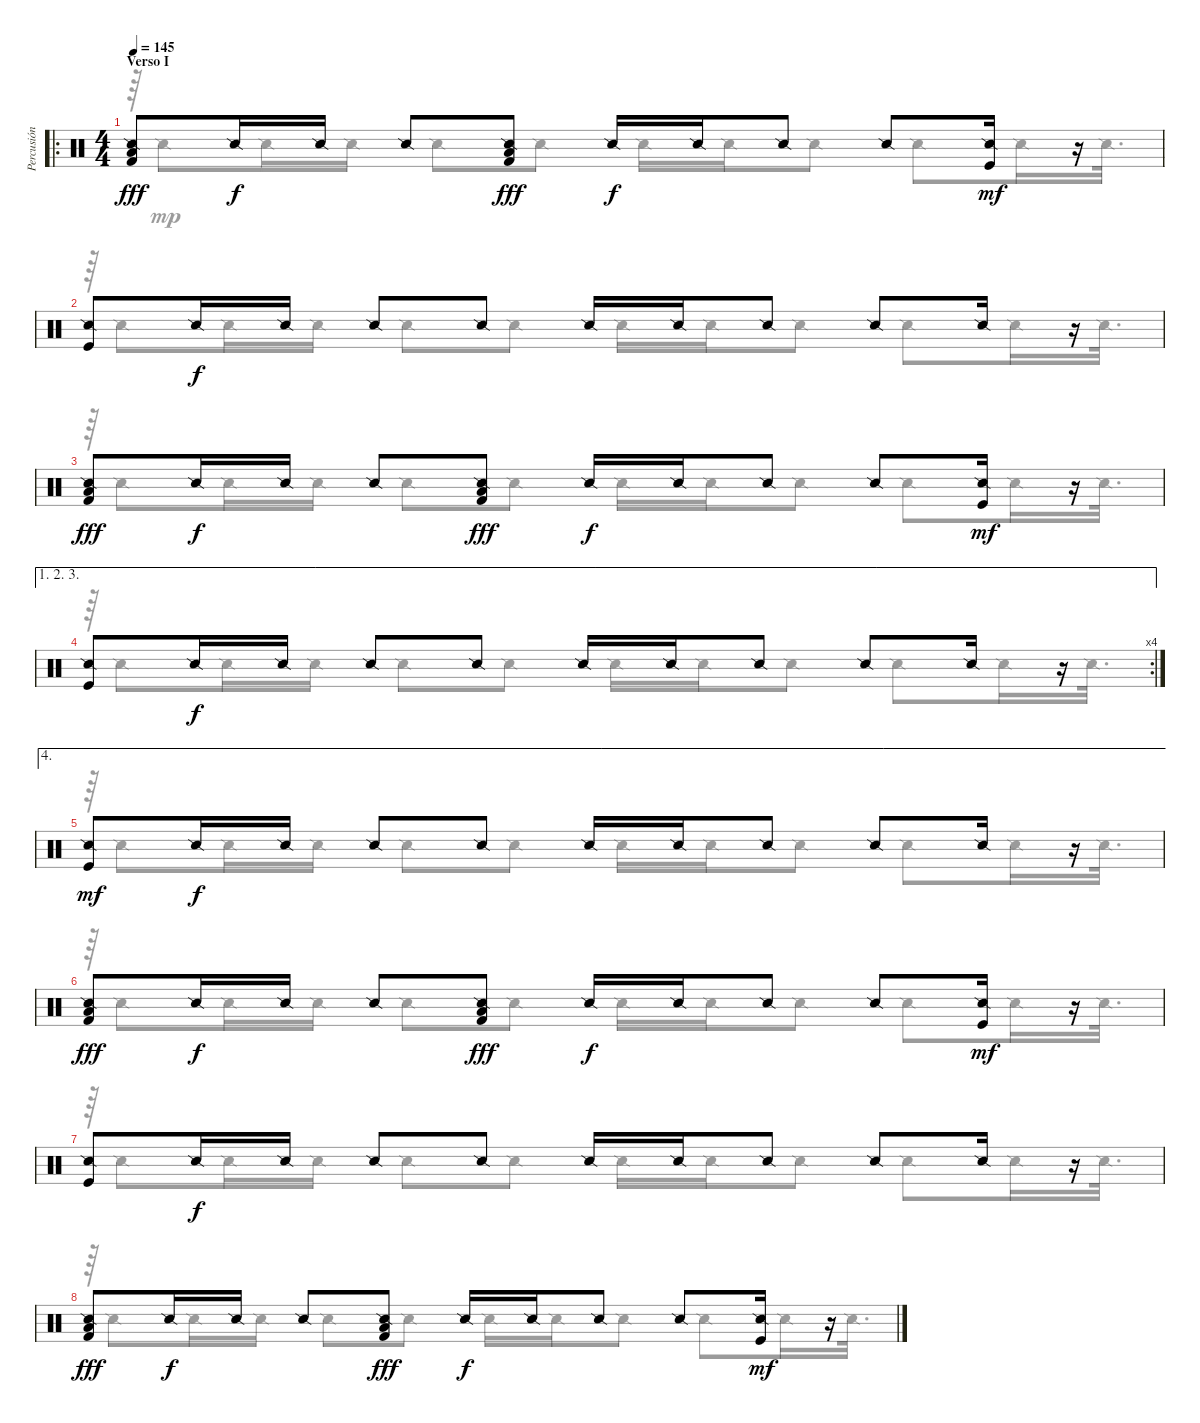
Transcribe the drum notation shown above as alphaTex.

\track ("Percusión" "Percusión") {instrument percussion}
\staff {score}
\articulation defaults
\voice
\ro
\ts (4 4)
\section ("" "Verso I")
\tempo 145
\clef neutral
\ks c
("Snare (side stick) 2" "Low Floor Tom (hit)" "Kick (hit) 2").8{dy fff} "Snare (side stick) 2".16{dy f} "Snare (side stick) 2".16 "Snare (side stick) 2".8 ("Snare (side stick) 2" "Low Floor Tom (hit)" "Kick (hit) 2").8{dy fff} "Snare (side stick) 2".16{dy f} "Snare (side stick) 2".16 "Snare (side stick) 2".8 "Snare (side stick) 2".8 ("Snare (side stick) 2" "Kick (hit)").16{dy mf} r.16 |
("Snare (side stick) 2" "Kick (hit)").8 "Snare (side stick) 2".16{dy f} "Snare (side stick) 2".16 "Snare (side stick) 2".8 "Snare (side stick) 2".8 "Snare (side stick) 2".16 "Snare (side stick) 2".16 "Snare (side stick) 2".8 "Snare (side stick) 2".8 "Snare (side stick) 2".16 r.16 |
("Snare (side stick) 2" "Low Floor Tom (hit)" "Kick (hit) 2").8{dy fff} "Snare (side stick) 2".16{dy f} "Snare (side stick) 2".16 "Snare (side stick) 2".8 ("Snare (side stick) 2" "Low Floor Tom (hit)" "Kick (hit) 2").8{dy fff} "Snare (side stick) 2".16{dy f} "Snare (side stick) 2".16 "Snare (side stick) 2".8 "Snare (side stick) 2".8 ("Snare (side stick) 2" "Kick (hit)").16{dy mf} r.16 |
\ae (1 2 3)
\rc 4
("Snare (side stick) 2" "Kick (hit)").8 "Snare (side stick) 2".16{dy f} "Snare (side stick) 2".16 "Snare (side stick) 2".8 "Snare (side stick) 2".8 "Snare (side stick) 2".16 "Snare (side stick) 2".16 "Snare (side stick) 2".8 "Snare (side stick) 2".8 "Snare (side stick) 2".16 r.16 |
\ae 4
("Snare (side stick) 2" "Kick (hit)").8{dy mf} "Snare (side stick) 2".16{dy f} "Snare (side stick) 2".16 "Snare (side stick) 2".8 "Snare (side stick) 2".8 "Snare (side stick) 2".16 "Snare (side stick) 2".16 "Snare (side stick) 2".8 "Snare (side stick) 2".8 "Snare (side stick) 2".16 r.16 |
("Snare (side stick) 2" "Low Floor Tom (hit)" "Kick (hit) 2").8{dy fff} "Snare (side stick) 2".16{dy f} "Snare (side stick) 2".16 "Snare (side stick) 2".8 ("Snare (side stick) 2" "Low Floor Tom (hit)" "Kick (hit) 2").8{dy fff} "Snare (side stick) 2".16{dy f} "Snare (side stick) 2".16 "Snare (side stick) 2".8 "Snare (side stick) 2".8 ("Snare (side stick) 2" "Kick (hit)").16{dy mf} r.16 |
("Snare (side stick) 2" "Kick (hit)").8 "Snare (side stick) 2".16{dy f} "Snare (side stick) 2".16 "Snare (side stick) 2".8 "Snare (side stick) 2".8 "Snare (side stick) 2".16 "Snare (side stick) 2".16 "Snare (side stick) 2".8 "Snare (side stick) 2".8 "Snare (side stick) 2".16 r.16 |
("Snare (side stick) 2" "Low Floor Tom (hit)" "Kick (hit) 2").8{dy fff} "Snare (side stick) 2".16{dy f} "Snare (side stick) 2".16 "Snare (side stick) 2".8 ("Snare (side stick) 2" "Low Floor Tom (hit)" "Kick (hit) 2").8{dy fff} "Snare (side stick) 2".16{dy f} "Snare (side stick) 2".16 "Snare (side stick) 2".8 "Snare (side stick) 2".8 ("Snare (side stick) 2" "Kick (hit)").16{dy mf} r.16
\voice
\clef neutral
\ottava regular
\simile none
\ks c
r.64{dy mp} "Snare (side stick) 2".8 "Snare (side stick) 2".16 "Snare (side stick) 2".16 "Snare (side stick) 2".8 "Snare (side stick) 2".8 "Snare (side stick) 2".16 "Snare (side stick) 2".16 "Snare (side stick) 2".8 "Snare (side stick) 2".8 "Snare (side stick) 2".16 "Snare (side stick) 2".32{d} |
r.64 "Snare (side stick) 2".8 "Snare (side stick) 2".16 "Snare (side stick) 2".16 "Snare (side stick) 2".8 "Snare (side stick) 2".8 "Snare (side stick) 2".16 "Snare (side stick) 2".16 "Snare (side stick) 2".8 "Snare (side stick) 2".8 "Snare (side stick) 2".16 "Snare (side stick) 2".32{d} |
r.64 "Snare (side stick) 2".8 "Snare (side stick) 2".16 "Snare (side stick) 2".16 "Snare (side stick) 2".8 "Snare (side stick) 2".8 "Snare (side stick) 2".16 "Snare (side stick) 2".16 "Snare (side stick) 2".8 "Snare (side stick) 2".8 "Snare (side stick) 2".16 "Snare (side stick) 2".32{d} |
r.64 "Snare (side stick) 2".8 "Snare (side stick) 2".16 "Snare (side stick) 2".16 "Snare (side stick) 2".8 "Snare (side stick) 2".8 "Snare (side stick) 2".16 "Snare (side stick) 2".16 "Snare (side stick) 2".8 "Snare (side stick) 2".8 "Snare (side stick) 2".16 "Snare (side stick) 2".32{d} |
r.64 "Snare (side stick) 2".8 "Snare (side stick) 2".16 "Snare (side stick) 2".16 "Snare (side stick) 2".8 "Snare (side stick) 2".8 "Snare (side stick) 2".16 "Snare (side stick) 2".16 "Snare (side stick) 2".8 "Snare (side stick) 2".8 "Snare (side stick) 2".16 "Snare (side stick) 2".32{d} |
r.64 "Snare (side stick) 2".8 "Snare (side stick) 2".16 "Snare (side stick) 2".16 "Snare (side stick) 2".8 "Snare (side stick) 2".8 "Snare (side stick) 2".16 "Snare (side stick) 2".16 "Snare (side stick) 2".8 "Snare (side stick) 2".8 "Snare (side stick) 2".16 "Snare (side stick) 2".32{d} |
r.64 "Snare (side stick) 2".8 "Snare (side stick) 2".16 "Snare (side stick) 2".16 "Snare (side stick) 2".8 "Snare (side stick) 2".8 "Snare (side stick) 2".16 "Snare (side stick) 2".16 "Snare (side stick) 2".8 "Snare (side stick) 2".8 "Snare (side stick) 2".16 "Snare (side stick) 2".32{d} |
r.64 "Snare (side stick) 2".8 "Snare (side stick) 2".16 "Snare (side stick) 2".16 "Snare (side stick) 2".8 "Snare (side stick) 2".8 "Snare (side stick) 2".16 "Snare (side stick) 2".16 "Snare (side stick) 2".8 "Snare (side stick) 2".8 "Snare (side stick) 2".16 "Snare (side stick) 2".32{d}
